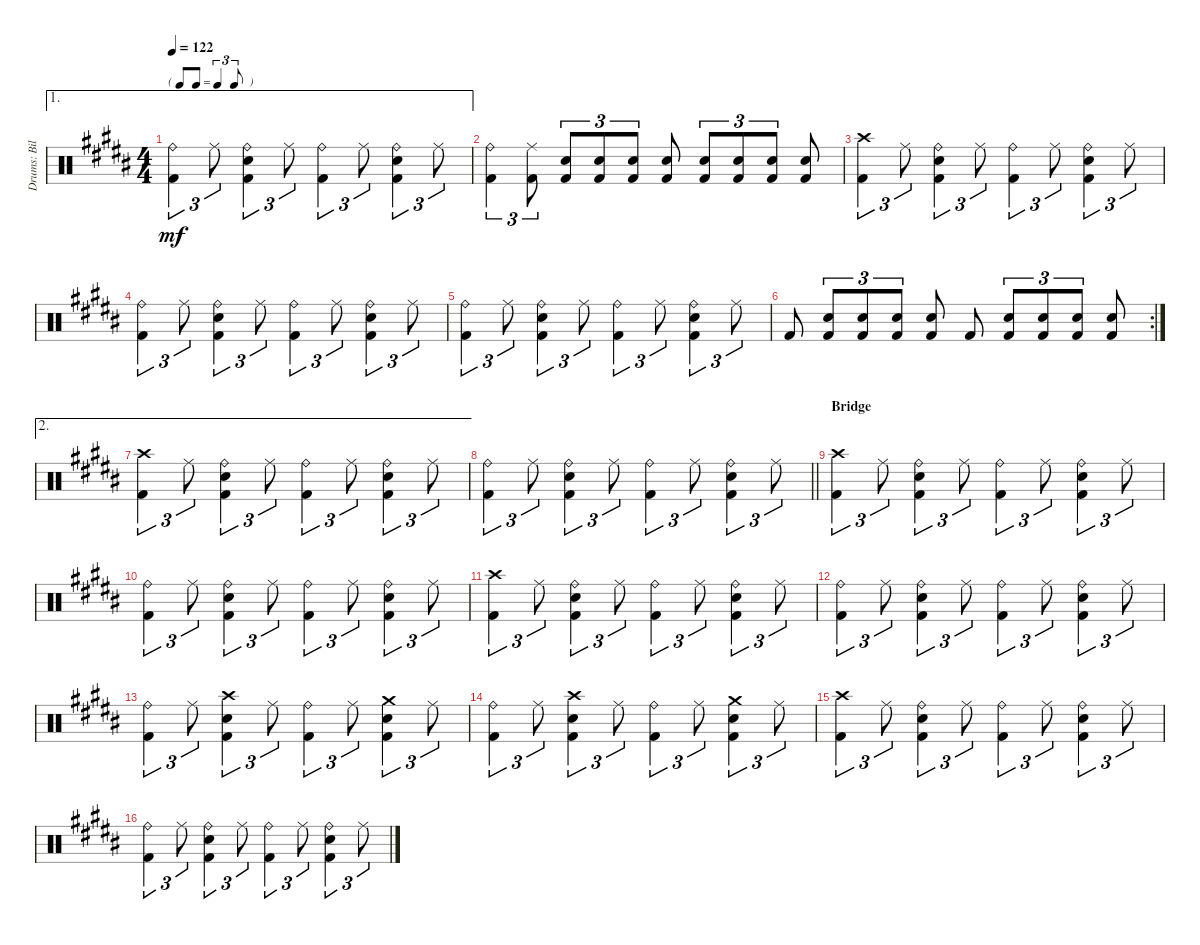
\track ("Drums: Bill" "Drums: Bil") {instrument percussion}
\staff {score}
\articulation defaults
\ae 1
\ts (4 4)
\tf triplet8th
\tempo 122
\clef neutral
\ks b
("Ride (bell)" "Kick (hit) 2").4{tu (3 2) dy mf} "Ride (middle)".8{tu (3 2)} ("Ride (bell)" "Electric Snare (hit)" "Kick (hit) 2").4{tu (3 2)} "Ride (middle)".8{tu (3 2)} ("Ride (bell)" "Kick (hit) 2").4{tu (3 2)} "Ride (middle)".8{tu (3 2)} ("Ride (bell)" "Electric Snare (hit)" "Kick (hit) 2").4{tu (3 2)} "Ride (middle)".8{tu (3 2)} |
("Ride (bell)" "Kick (hit) 2").4{tu (3 2)} ("Ride (middle)" "Kick (hit) 2").8{tu (3 2)} ("Electric Snare (hit)" "Kick (hit) 2").8{tu (3 2)} ("Electric Snare (hit)" "Kick (hit) 2").8{tu (3 2)} ("Electric Snare (hit)" "Kick (hit) 2").8{tu (3 2)} ("Electric Snare (hit)" "Kick (hit) 2").8 ("Electric Snare (hit)" "Kick (hit) 2").8{tu (3 2)} ("Electric Snare (hit)" "Kick (hit) 2").8{tu (3 2)} ("Electric Snare (hit)" "Kick (hit) 2").8{tu (3 2)} ("Electric Snare (hit)" "Kick (hit) 2").8 |
("Crash high (hit)" "Kick (hit) 2").4{tu (3 2)} "Ride (middle)".8{tu (3 2)} ("Ride (bell)" "Electric Snare (hit)" "Kick (hit) 2").4{tu (3 2)} "Ride (middle)".8{tu (3 2)} ("Ride (bell)" "Kick (hit) 2").4{tu (3 2)} "Ride (middle)".8{tu (3 2)} ("Ride (bell)" "Electric Snare (hit)" "Kick (hit) 2").4{tu (3 2)} "Ride (middle)".8{tu (3 2)} |
("Ride (bell)" "Kick (hit) 2").4{tu (3 2)} "Ride (middle)".8{tu (3 2)} ("Ride (bell)" "Electric Snare (hit)" "Kick (hit) 2").4{tu (3 2)} "Ride (middle)".8{tu (3 2)} ("Ride (bell)" "Kick (hit) 2").4{tu (3 2)} "Ride (middle)".8{tu (3 2)} ("Ride (bell)" "Electric Snare (hit)" "Kick (hit) 2").4{tu (3 2)} "Ride (middle)".8{tu (3 2)} |
("Ride (bell)" "Kick (hit) 2").4{tu (3 2)} "Ride (middle)".8{tu (3 2)} ("Ride (bell)" "Electric Snare (hit)" "Kick (hit) 2").4{tu (3 2)} "Ride (middle)".8{tu (3 2)} ("Ride (bell)" "Kick (hit) 2").4{tu (3 2)} "Ride (middle)".8{tu (3 2)} ("Ride (bell)" "Electric Snare (hit)" "Kick (hit) 2").4{tu (3 2)} "Ride (middle)".8{tu (3 2)} |
\rc 2 "Kick (hit) 2".8
("Electric Snare (hit)" "Kick (hit) 2").8{tu (3 2)} ("Electric Snare (hit)" "Kick (hit) 2").8{tu (3 2)} ("Electric Snare (hit)" "Kick (hit) 2").8{tu (3 2)} ("Electric Snare (hit)" "Kick (hit) 2").8 "Kick (hit) 2".8 ("Electric Snare (hit)" "Kick (hit) 2").8{tu (3 2)} ("Electric Snare (hit)" "Kick (hit) 2").8{tu (3 2)} ("Electric Snare (hit)" "Kick (hit) 2").8{tu (3 2)} ("Electric Snare (hit)" "Kick (hit) 2").8 |
\ae 2
("Crash high (hit)" "Kick (hit) 2").4{tu (3 2)} "Ride (middle)".8{tu (3 2)} ("Ride (bell)" "Electric Snare (hit)" "Kick (hit) 2").4{tu (3 2)} "Ride (middle)".8{tu (3 2)} ("Ride (bell)" "Kick (hit) 2").4{tu (3 2)} "Ride (middle)".8{tu (3 2)} ("Ride (bell)" "Electric Snare (hit)" "Kick (hit) 2").4{tu (3 2)} "Ride (middle)".8{tu (3 2)} |
\barLineRight lightlight
("Ride (bell)" "Kick (hit) 2").4{tu (3 2)} "Ride (middle)".8{tu (3 2)} ("Ride (bell)" "Electric Snare (hit)" "Kick (hit) 2").4{tu (3 2)} "Ride (middle)".8{tu (3 2)} ("Ride (bell)" "Kick (hit) 2").4{tu (3 2)} "Ride (middle)".8{tu (3 2)} ("Ride (bell)" "Electric Snare (hit)" "Kick (hit) 2").4{tu (3 2)} "Ride (middle)".8{tu (3 2)} |
\section ("" "Bridge")
("Crash high (hit)" "Kick (hit) 2").4{tu (3 2)} "Ride (middle)".8{tu (3 2)} ("Ride (bell)" "Electric Snare (hit)" "Kick (hit) 2").4{tu (3 2)} "Ride (middle)".8{tu (3 2)} ("Ride (bell)" "Kick (hit) 2").4{tu (3 2)} "Ride (middle)".8{tu (3 2)} ("Ride (bell)" "Electric Snare (hit)" "Kick (hit) 2").4{tu (3 2)} "Ride (middle)".8{tu (3 2)} |
("Ride (bell)" "Kick (hit) 2").4{tu (3 2)} "Ride (middle)".8{tu (3 2)} ("Ride (bell)" "Electric Snare (hit)" "Kick (hit) 2").4{tu (3 2)} "Ride (middle)".8{tu (3 2)} ("Ride (bell)" "Kick (hit) 2").4{tu (3 2)} "Ride (middle)".8{tu (3 2)} ("Ride (bell)" "Electric Snare (hit)" "Kick (hit) 2").4{tu (3 2)} "Ride (middle)".8{tu (3 2)} |
("Crash high (hit)" "Kick (hit) 2").4{tu (3 2)} "Ride (middle)".8{tu (3 2)} ("Ride (bell)" "Electric Snare (hit)" "Kick (hit) 2").4{tu (3 2)} "Ride (middle)".8{tu (3 2)} ("Ride (bell)" "Kick (hit) 2").4{tu (3 2)} "Ride (middle)".8{tu (3 2)} ("Ride (bell)" "Electric Snare (hit)" "Kick (hit) 2").4{tu (3 2)} "Ride (middle)".8{tu (3 2)} |
("Ride (bell)" "Kick (hit) 2").4{tu (3 2)} "Ride (middle)".8{tu (3 2)} ("Ride (bell)" "Electric Snare (hit)" "Kick (hit) 2").4{tu (3 2)} "Ride (middle)".8{tu (3 2)} ("Ride (bell)" "Kick (hit) 2").4{tu (3 2)} "Ride (middle)".8{tu (3 2)} ("Ride (bell)" "Electric Snare (hit)" "Kick (hit) 2").4{tu (3 2)} "Ride (middle)".8{tu (3 2)} |
("Ride (bell)" "Kick (hit) 2").4{tu (3 2)} "Ride (middle)".8{tu (3 2)} ("Crash high (hit)" "Electric Snare (hit)" "Kick (hit) 2").4{tu (3 2)} "Ride (middle)".8{tu (3 2)} ("Ride (bell)" "Kick (hit) 2").4{tu (3 2)} "Ride (middle)".8{tu (3 2)} ("Crash medium (hit)" "Electric Snare (hit)" "Kick (hit) 2").4{tu (3 2)} "Ride (middle)".8{tu (3 2)} |
("Ride (bell)" "Kick (hit) 2").4{tu (3 2)} "Ride (middle)".8{tu (3 2)} ("Crash high (hit)" "Electric Snare (hit)" "Kick (hit) 2").4{tu (3 2)} "Ride (middle)".8{tu (3 2)} ("Ride (bell)" "Kick (hit) 2").4{tu (3 2)} "Ride (middle)".8{tu (3 2)} ("Crash medium (hit)" "Electric Snare (hit)" "Kick (hit) 2").4{tu (3 2)} "Ride (middle)".8{tu (3 2)} |
("Crash high (hit)" "Kick (hit) 2").4{tu (3 2)} "Ride (middle)".8{tu (3 2)} ("Ride (bell)" "Electric Snare (hit)" "Kick (hit) 2").4{tu (3 2)} "Ride (middle)".8{tu (3 2)} ("Ride (bell)" "Kick (hit) 2").4{tu (3 2)} "Ride (middle)".8{tu (3 2)} ("Ride (bell)" "Electric Snare (hit)" "Kick (hit) 2").4{tu (3 2)} "Ride (middle)".8{tu (3 2)} |
("Ride (bell)" "Kick (hit) 2").4{tu (3 2)} "Ride (middle)".8{tu (3 2)} ("Ride (bell)" "Electric Snare (hit)" "Kick (hit) 2").4{tu (3 2)} "Ride (middle)".8{tu (3 2)} ("Ride (bell)" "Kick (hit) 2").4{tu (3 2)} "Ride (middle)".8{tu (3 2)} ("Ride (bell)" "Electric Snare (hit)" "Kick (hit) 2").4{tu (3 2)} "Ride (middle)".8{tu (3 2)}
